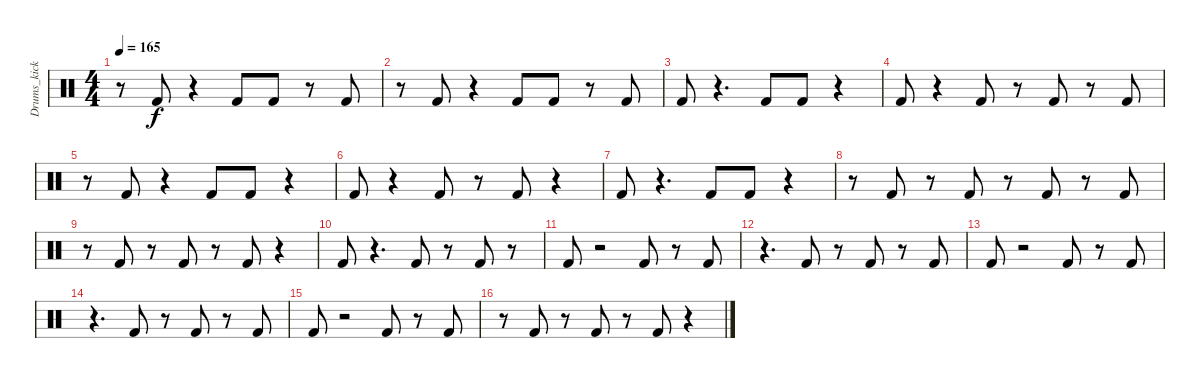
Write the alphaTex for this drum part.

\track ("Drums_kick" "Drums_kick") {instrument percussion}
\staff {score}
\articulation defaults
\ts (4 4)
\tempo 165
\clef neutral
\ks c
r.8{dy f} "Kick (hit) 2".8 r.4 "Kick (hit) 2".8 "Kick (hit) 2".8 r.8 "Kick (hit) 2".8 |
r.8 "Kick (hit) 2".8 r.4 "Kick (hit) 2".8 "Kick (hit) 2".8 r.8 "Kick (hit) 2".8 |
"Kick (hit) 2".8 r.4{d} "Kick (hit) 2".8 "Kick (hit) 2".8 r.4 |
"Kick (hit) 2".8 r.4 "Kick (hit) 2".8 r.8 "Kick (hit) 2".8 r.8 "Kick (hit) 2".8 |
r.8 "Kick (hit) 2".8 r.4 "Kick (hit) 2".8 "Kick (hit) 2".8 r.4 |
"Kick (hit) 2".8 r.4 "Kick (hit) 2".8 r.8 "Kick (hit) 2".8 r.4 |
"Kick (hit) 2".8 r.4{d} "Kick (hit) 2".8 "Kick (hit) 2".8 r.4 |
r.8 "Kick (hit) 2".8 r.8 "Kick (hit) 2".8 r.8 "Kick (hit) 2".8 r.8 "Kick (hit) 2".8 |
r.8 "Kick (hit) 2".8 r.8 "Kick (hit) 2".8 r.8 "Kick (hit) 2".8 r.4 |
"Kick (hit) 2".8 r.4{d} "Kick (hit) 2".8 r.8 "Kick (hit) 2".8 r.8 |
"Kick (hit) 2".8 r.2 "Kick (hit) 2".8 r.8 "Kick (hit) 2".8 |
r.4{d} "Kick (hit) 2".8 r.8 "Kick (hit) 2".8 r.8 "Kick (hit) 2".8 |
"Kick (hit) 2".8 r.2 "Kick (hit) 2".8 r.8 "Kick (hit) 2".8 |
r.4{d} "Kick (hit) 2".8 r.8 "Kick (hit) 2".8 r.8 "Kick (hit) 2".8 |
"Kick (hit) 2".8 r.2 "Kick (hit) 2".8 r.8 "Kick (hit) 2".8 |
r.8 "Kick (hit) 2".8 r.8 "Kick (hit) 2".8 r.8 "Kick (hit) 2".8 r.4
